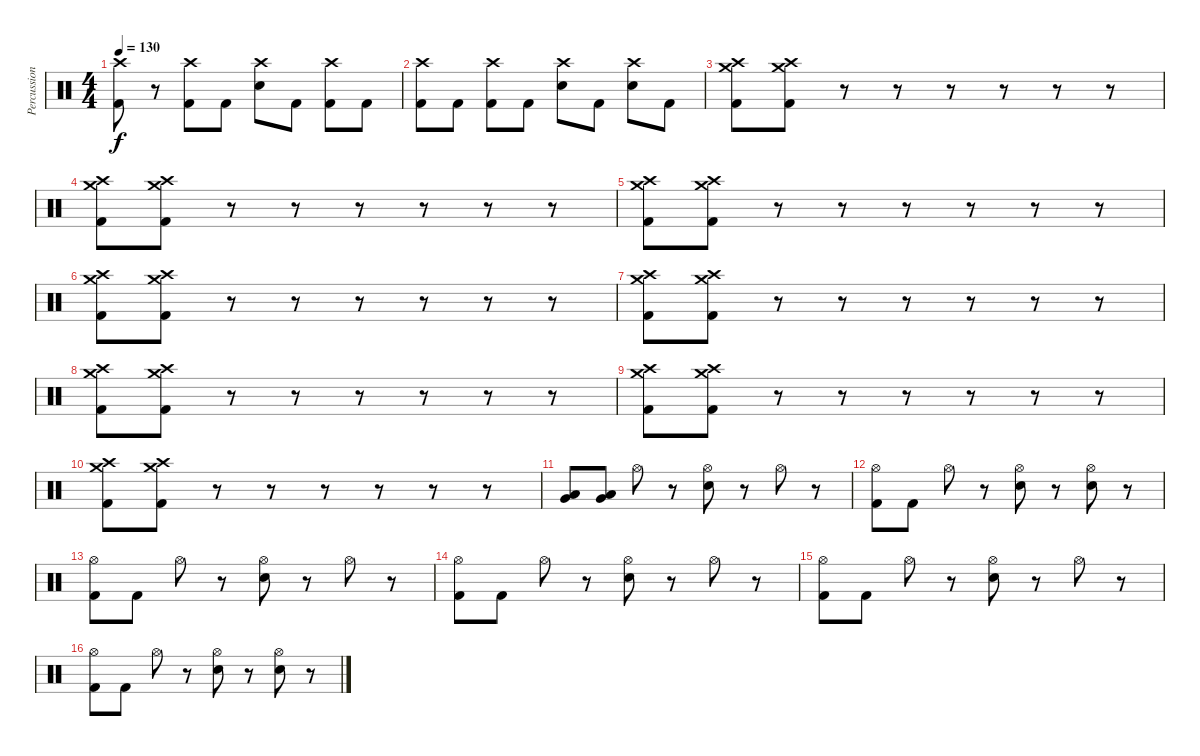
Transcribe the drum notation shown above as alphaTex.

\track ("Percussions" "Percussion") {instrument percussion}
\staff {score}
\articulation defaults
\ts (4 4)
\tempo 130
\clef neutral
\ks c
("Kick (hit) 2" "Crash high (hit)").8{dy f} r.8 ("Kick (hit) 2" "Crash high (hit)").8 "Kick (hit) 2".8 ("Electric Snare (hit)" "Crash high (hit)").8 "Kick (hit) 2".8 ("Kick (hit) 2" "Crash high (hit)").8 "Kick (hit) 2".8 |
("Kick (hit) 2" "Crash high (hit)").8 "Kick (hit) 2".8 ("Kick (hit) 2" "Crash high (hit)").8 "Kick (hit) 2".8 ("Electric Snare (hit)" "Crash high (hit)").8 "Kick (hit) 2".8 ("Electric Snare (hit)" "Crash high (hit)").8 "Kick (hit) 2".8 |
("Kick (hit) 2" "Crash medium (hit)" "Crash high (hit)").8 ("Kick (hit) 2" "Crash medium (hit)" "Crash high (hit)").8 r.8 r.8 r.8 r.8 r.8 r.8 |
("Kick (hit) 2" "Crash medium (hit)" "Crash high (hit)").8 ("Kick (hit) 2" "Crash medium (hit)" "Crash high (hit)").8 r.8 r.8 r.8 r.8 r.8 r.8 |
("Kick (hit) 2" "Crash medium (hit)" "Crash high (hit)").8 ("Kick (hit) 2" "Crash medium (hit)" "Crash high (hit)").8 r.8 r.8 r.8 r.8 r.8 r.8 |
("Kick (hit) 2" "Crash medium (hit)" "Crash high (hit)").8 ("Kick (hit) 2" "Crash medium (hit)" "Crash high (hit)").8 r.8 r.8 r.8 r.8 r.8 r.8 |
("Kick (hit) 2" "Crash medium (hit)" "Crash high (hit)").8 ("Kick (hit) 2" "Crash medium (hit)" "Crash high (hit)").8 r.8 r.8 r.8 r.8 r.8 r.8 |
("Kick (hit) 2" "Crash medium (hit)" "Crash high (hit)").8 ("Kick (hit) 2" "Crash medium (hit)" "Crash high (hit)").8 r.8 r.8 r.8 r.8 r.8 r.8 |
("Kick (hit) 2" "Crash medium (hit)" "Crash high (hit)").8 ("Kick (hit) 2" "Crash medium (hit)" "Crash high (hit)").8 r.8 r.8 r.8 r.8 r.8 r.8 |
("Kick (hit) 2" "Crash medium (hit)" "Crash high (hit)").8 ("Kick (hit) 2" "Crash medium (hit)" "Crash high (hit)").8 r.8 r.8 r.8 r.8 r.8 r.8 |
("Low Floor Tom (hit)" "Very Low Tom (hit)").8 ("Low Floor Tom (hit)" "Very Low Tom (hit)").8 "Hi-Hat (open)".8 r.8 ("Electric Snare (hit)" "Hi-Hat (open)").8 r.8 "Hi-Hat (open)".8 r.8 |
("Kick (hit) 2" "Hi-Hat (open)").8 "Kick (hit) 2".8 "Hi-Hat (open)".8 r.8 ("Electric Snare (hit)" "Hi-Hat (open)").8 r.8 ("Electric Snare (hit)" "Hi-Hat (open)").8 r.8 |
("Kick (hit) 2" "Hi-Hat (open)").8 "Kick (hit) 2".8 "Hi-Hat (open)".8 r.8 ("Electric Snare (hit)" "Hi-Hat (open)").8 r.8 "Hi-Hat (open)".8 r.8 |
("Kick (hit) 2" "Hi-Hat (open)").8 "Kick (hit) 2".8 "Hi-Hat (open)".8 r.8 ("Electric Snare (hit)" "Hi-Hat (open)").8 r.8 "Hi-Hat (open)".8 r.8 |
("Kick (hit) 2" "Hi-Hat (open)").8 "Kick (hit) 2".8 "Hi-Hat (open)".8 r.8 ("Electric Snare (hit)" "Hi-Hat (open)").8 r.8 "Hi-Hat (open)".8 r.8 |
("Kick (hit) 2" "Hi-Hat (open)").8 "Kick (hit) 2".8 "Hi-Hat (open)".8 r.8 ("Electric Snare (hit)" "Hi-Hat (open)").8 r.8 ("Electric Snare (hit)" "Hi-Hat (open)").8 r.8
